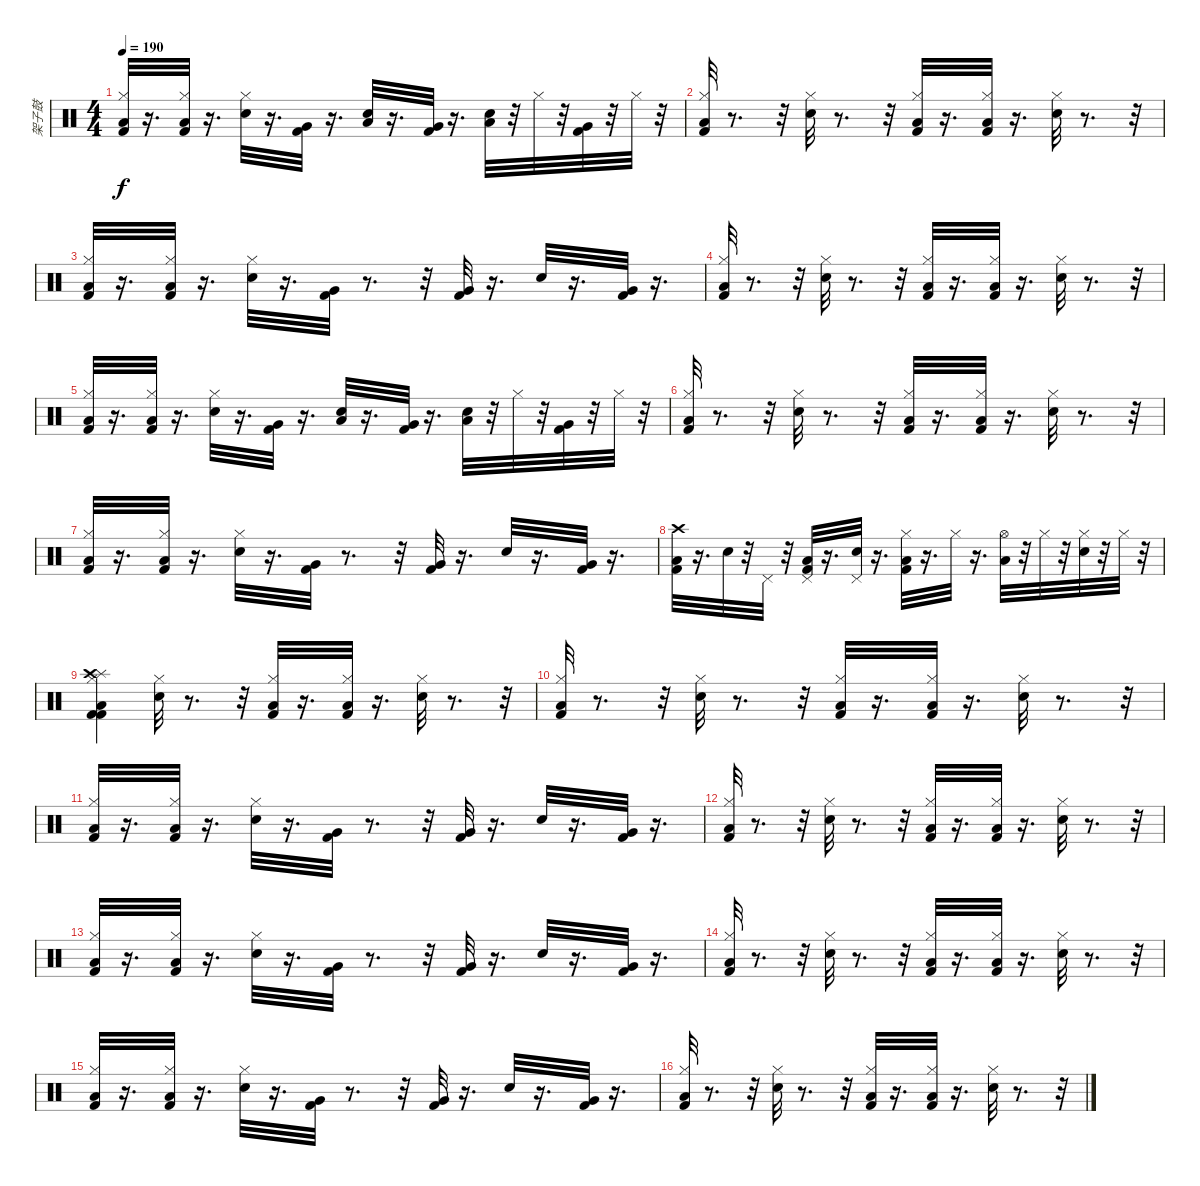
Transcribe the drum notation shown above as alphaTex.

\track ("架子鼓" "架子鼓") {instrument percussion}
\staff {score}
\articulation defaults
\ts (4 4)
\tempo 190
\clef neutral
\ks c
("Kick (hit) 2" "Hi-Hat (closed)" "Low Floor Tom (hit)").32{dy f} r.16{d} ("Kick (hit) 2" "Hi-Hat (closed)" "Low Floor Tom (hit)").32 r.16{d} ("Hi-Hat (closed)" "Electric Snare (hit)").32 r.16{d} ("Kick (hit) 2" "Very Low Tom (hit)").32 r.16{d} ("Snare (hit) 2" "Low Floor Tom (hit)").32 r.16{d} ("Kick (hit) 2" "Very Low Tom (hit)").32 r.16{d} ("Low Floor Tom (hit)" "Snare (hit) 2").32 r.32 "Hi-Hat (closed)".32 r.32 ("Kick (hit) 2" "Very Low Tom (hit)").32 r.32 "Hi-Hat (closed)".32 r.32 |
("Kick (hit) 2" "Hi-Hat (closed)" "Low Floor Tom (hit)").32 r.8{d} r.32 ("Hi-Hat (closed)" "Electric Snare (hit)").32 r.8{d} r.32 ("Kick (hit) 2" "Hi-Hat (closed)" "Low Floor Tom (hit)").32 r.16{d} ("Kick (hit) 2" "Hi-Hat (closed)" "Low Floor Tom (hit)").32 r.16{d} ("Hi-Hat (closed)" "Electric Snare (hit)").32 r.8{d} r.32 |
("Kick (hit) 2" "Hi-Hat (closed)" "Low Floor Tom (hit)").32 r.16{d} ("Kick (hit) 2" "Hi-Hat (closed)" "Low Floor Tom (hit)").32 r.16{d} ("Hi-Hat (closed)" "Electric Snare (hit)").32 r.16{d} ("Kick (hit) 2" "Very Low Tom (hit)").32 r.8{d} r.32 ("Kick (hit) 2" "Very Low Tom (hit)").32 r.16{d} "Snare (hit) 2".32 r.16{d} ("Kick (hit) 2" "Very Low Tom (hit)").32 r.16{d} |
("Kick (hit) 2" "Hi-Hat (closed)" "Low Floor Tom (hit)").32 r.8{d} r.32 ("Hi-Hat (closed)" "Electric Snare (hit)").32 r.8{d} r.32 ("Kick (hit) 2" "Hi-Hat (closed)" "Low Floor Tom (hit)").32 r.16{d} ("Kick (hit) 2" "Hi-Hat (closed)" "Low Floor Tom (hit)").32 r.16{d} ("Hi-Hat (closed)" "Electric Snare (hit)").32 r.8{d} r.32 |
("Kick (hit) 2" "Hi-Hat (closed)" "Low Floor Tom (hit)").32 r.16{d} ("Kick (hit) 2" "Hi-Hat (closed)" "Low Floor Tom (hit)").32 r.16{d} ("Hi-Hat (closed)" "Electric Snare (hit)").32 r.16{d} ("Kick (hit) 2" "Very Low Tom (hit)").32 r.16{d} ("Snare (hit) 2" "Low Floor Tom (hit)").32 r.16{d} ("Kick (hit) 2" "Very Low Tom (hit)").32 r.16{d} ("Low Floor Tom (hit)" "Snare (hit) 2").32 r.32 "Hi-Hat (closed)".32 r.32 ("Kick (hit) 2" "Very Low Tom (hit)").32 r.32 "Hi-Hat (closed)".32 r.32 |
("Kick (hit) 2" "Hi-Hat (closed)" "Low Floor Tom (hit)").32 r.8{d} r.32 ("Hi-Hat (closed)" "Electric Snare (hit)").32 r.8{d} r.32 ("Kick (hit) 2" "Hi-Hat (closed)" "Low Floor Tom (hit)").32 r.16{d} ("Kick (hit) 2" "Hi-Hat (closed)" "Low Floor Tom (hit)").32 r.16{d} ("Hi-Hat (closed)" "Electric Snare (hit)").32 r.8{d} r.32 |
("Kick (hit) 2" "Hi-Hat (closed)" "Low Floor Tom (hit)").32 r.16{d} ("Kick (hit) 2" "Hi-Hat (closed)" "Low Floor Tom (hit)").32 r.16{d} ("Hi-Hat (closed)" "Electric Snare (hit)").32 r.16{d} ("Kick (hit) 2" "Very Low Tom (hit)").32 r.8{d} r.32 ("Kick (hit) 2" "Very Low Tom (hit)").32 r.16{d} "Snare (hit) 2".32 r.16{d} ("Kick (hit) 2" "Very Low Tom (hit)").32 r.16{d} |
("Crash high (hit)" "Kick (hit) 2" "Low Floor Tom (hit)").32 r.16{d} "Electric Snare (hit)".32 r.32 "Pedal Hi-Hat (hit)".32 r.32 ("Pedal Hi-Hat (hit)" "Kick (hit) 2" "Low Floor Tom (hit)").32 r.16{d} ("Snare (hit) 2" "Pedal Hi-Hat (hit)").32 r.16{d} ("Kick (hit) 2" "Hi-Hat (closed)" "Low Tom (hit)").32 r.16{d} "Hi-Hat (closed)".32 r.16{d} ("Low Floor Tom (hit)" "Hi-Hat (open)").32 r.32 "Hi-Hat (closed)".32 r.32 ("Snare (hit) 2" "Hi-Hat (closed)").32 r.32 "Hi-Hat (closed)".32 r.32 |
("Kick (hit) 2" "Splash (hit)" "Hi-Hat (closed)" "Kick (hit) 2" "Low Floor Tom (hit)" "Crash high (hit)").4 ("Hi-Hat (closed)" "Electric Snare (hit)").32 r.8{d} r.32 ("Kick (hit) 2" "Hi-Hat (closed)" "Low Floor Tom (hit)").32 r.16{d} ("Kick (hit) 2" "Hi-Hat (closed)" "Low Floor Tom (hit)").32 r.16{d} ("Hi-Hat (closed)" "Electric Snare (hit)").32 r.8{d} r.32 |
("Kick (hit) 2" "Hi-Hat (closed)" "Low Floor Tom (hit)").32 r.8{d} r.32 ("Hi-Hat (closed)" "Electric Snare (hit)").32 r.8{d} r.32 ("Kick (hit) 2" "Hi-Hat (closed)" "Low Floor Tom (hit)").32 r.16{d} ("Kick (hit) 2" "Hi-Hat (closed)" "Low Floor Tom (hit)").32 r.16{d} ("Hi-Hat (closed)" "Electric Snare (hit)").32 r.8{d} r.32 |
("Kick (hit) 2" "Hi-Hat (closed)" "Low Floor Tom (hit)").32 r.16{d} ("Kick (hit) 2" "Hi-Hat (closed)" "Low Floor Tom (hit)").32 r.16{d} ("Hi-Hat (closed)" "Electric Snare (hit)").32 r.16{d} ("Kick (hit) 2" "Very Low Tom (hit)").32 r.8{d} r.32 ("Kick (hit) 2" "Very Low Tom (hit)").32 r.16{d} "Snare (hit) 2".32 r.16{d} ("Kick (hit) 2" "Very Low Tom (hit)").32 r.16{d} |
("Kick (hit) 2" "Hi-Hat (closed)" "Low Floor Tom (hit)").32 r.8{d} r.32 ("Hi-Hat (closed)" "Electric Snare (hit)").32 r.8{d} r.32 ("Kick (hit) 2" "Hi-Hat (closed)" "Low Floor Tom (hit)").32 r.16{d} ("Kick (hit) 2" "Hi-Hat (closed)" "Low Floor Tom (hit)").32 r.16{d} ("Hi-Hat (closed)" "Electric Snare (hit)").32 r.8{d} r.32 |
("Kick (hit) 2" "Hi-Hat (closed)" "Low Floor Tom (hit)").32 r.16{d} ("Kick (hit) 2" "Hi-Hat (closed)" "Low Floor Tom (hit)").32 r.16{d} ("Hi-Hat (closed)" "Electric Snare (hit)").32 r.16{d} ("Kick (hit) 2" "Very Low Tom (hit)").32 r.8{d} r.32 ("Kick (hit) 2" "Very Low Tom (hit)").32 r.16{d} "Snare (hit) 2".32 r.16{d} ("Kick (hit) 2" "Very Low Tom (hit)").32 r.16{d} |
("Kick (hit) 2" "Hi-Hat (closed)" "Low Floor Tom (hit)").32 r.8{d} r.32 ("Hi-Hat (closed)" "Electric Snare (hit)").32 r.8{d} r.32 ("Kick (hit) 2" "Hi-Hat (closed)" "Low Floor Tom (hit)").32 r.16{d} ("Kick (hit) 2" "Hi-Hat (closed)" "Low Floor Tom (hit)").32 r.16{d} ("Hi-Hat (closed)" "Electric Snare (hit)").32 r.8{d} r.32 |
("Kick (hit) 2" "Hi-Hat (closed)" "Low Floor Tom (hit)").32 r.16{d} ("Kick (hit) 2" "Hi-Hat (closed)" "Low Floor Tom (hit)").32 r.16{d} ("Hi-Hat (closed)" "Electric Snare (hit)").32 r.16{d} ("Kick (hit) 2" "Very Low Tom (hit)").32 r.8{d} r.32 ("Kick (hit) 2" "Very Low Tom (hit)").32 r.16{d} "Snare (hit) 2".32 r.16{d} ("Kick (hit) 2" "Very Low Tom (hit)").32 r.16{d} |
("Kick (hit) 2" "Hi-Hat (closed)" "Low Floor Tom (hit)").32 r.8{d} r.32 ("Hi-Hat (closed)" "Electric Snare (hit)").32 r.8{d} r.32 ("Kick (hit) 2" "Hi-Hat (closed)" "Low Floor Tom (hit)").32 r.16{d} ("Kick (hit) 2" "Hi-Hat (closed)" "Low Floor Tom (hit)").32 r.16{d} ("Hi-Hat (closed)" "Electric Snare (hit)").32 r.8{d} r.32
